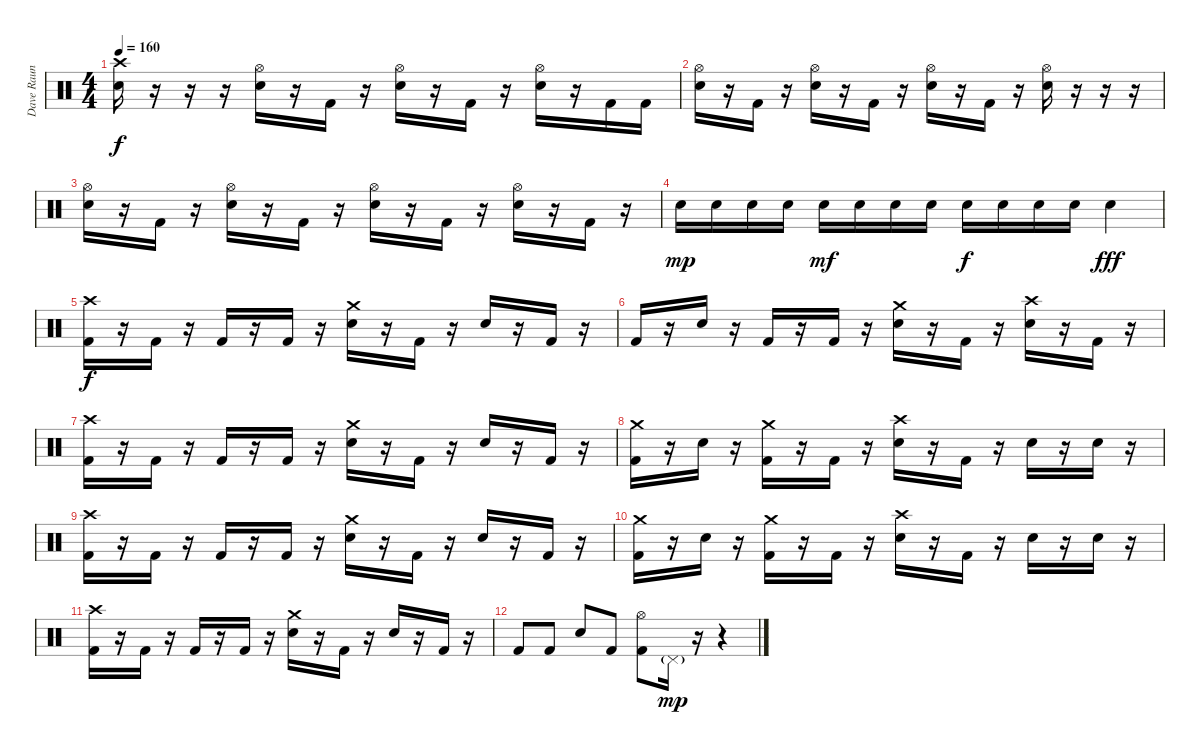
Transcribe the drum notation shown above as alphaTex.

\track ("Dave Raun" "Dave Raun") {instrument percussion}
\staff {score}
\articulation defaults
\ts (4 4)
\tempo 160
\clef neutral
\ks c
("Crash high (hit)" "Snare (hit) 2").16{dy f} r.16 r.16 r.16 ("Hi-Hat (open)" "Snare (hit) 2").16 r.16 "Kick (hit) 2".16 r.16 ("Hi-Hat (open)" "Snare (hit) 2").16 r.16 "Kick (hit) 2".16 r.16 ("Hi-Hat (open)" "Snare (hit) 2").16 r.16 "Kick (hit) 2".16 "Kick (hit) 2".16 |
("Hi-Hat (open)" "Snare (hit) 2").16 r.16 "Kick (hit) 2".16 r.16 ("Hi-Hat (open)" "Snare (hit) 2").16 r.16 "Kick (hit) 2".16 r.16 ("Hi-Hat (open)" "Snare (hit) 2").16 r.16 "Kick (hit) 2".16 r.16 ("Hi-Hat (open)" "Snare (hit) 2").16 r.16 r.16 r.16 |
("Hi-Hat (open)" "Snare (hit) 2").16 r.16 "Kick (hit) 2".16 r.16 ("Hi-Hat (open)" "Snare (hit) 2").16 r.16 "Kick (hit) 2".16 r.16 ("Hi-Hat (open)" "Snare (hit) 2").16 r.16 "Kick (hit) 2".16 r.16 ("Hi-Hat (open)" "Snare (hit) 2").16 r.16 "Kick (hit) 2".16 r.16 |
"Snare (hit) 2".16{dy mp} "Snare (hit) 2".16 "Snare (hit) 2".16 "Snare (hit) 2".16 "Snare (hit) 2".16{dy mf} "Snare (hit) 2".16 "Snare (hit) 2".16 "Snare (hit) 2".16 "Snare (hit) 2".16{dy f} "Snare (hit) 2".16 "Snare (hit) 2".16 "Snare (hit) 2".16 "Snare (hit) 2".4{dy fff} |
("Crash high (hit)" "Kick (hit) 2").16{dy f} r.16 "Kick (hit) 2".16 r.16 "Kick (hit) 2".16 r.16 "Kick (hit) 2".16 r.16 ("Crash medium (hit)" "Snare (hit) 2").16 r.16 "Kick (hit) 2".16 r.16 "Snare (hit) 2".16 r.16 "Kick (hit) 2".16 r.16 |
"Kick (hit) 2".16 r.16 "Snare (hit) 2".16 r.16 "Kick (hit) 2".16 r.16 "Kick (hit) 2".16 r.16 ("Crash medium (hit)" "Snare (hit) 2").16 r.16 "Kick (hit) 2".16 r.16 ("Crash high (hit)" "Snare (hit) 2").16 r.16 "Kick (hit) 2".16 r.16 |
("Crash high (hit)" "Kick (hit) 2").16 r.16 "Kick (hit) 2".16 r.16 "Kick (hit) 2".16 r.16 "Kick (hit) 2".16 r.16 ("Crash medium (hit)" "Snare (hit) 2").16 r.16 "Kick (hit) 2".16 r.16 "Snare (hit) 2".16 r.16 "Kick (hit) 2".16 r.16 |
("Crash medium (hit)" "Kick (hit) 2").16 r.16 "Snare (hit) 2".16 r.16 ("Crash medium (hit)" "Kick (hit) 2").16 r.16 "Kick (hit) 2".16 r.16 ("Crash high (hit)" "Snare (hit) 2").16 r.16 "Kick (hit) 2".16 r.16 "Snare (hit) 2".16 r.16 "Snare (hit) 2".16 r.16 |
("Crash high (hit)" "Kick (hit) 2").16 r.16 "Kick (hit) 2".16 r.16 "Kick (hit) 2".16 r.16 "Kick (hit) 2".16 r.16 ("Crash medium (hit)" "Snare (hit) 2").16 r.16 "Kick (hit) 2".16 r.16 "Snare (hit) 2".16 r.16 "Kick (hit) 2".16 r.16 |
("Crash medium (hit)" "Kick (hit) 2").16 r.16 "Snare (hit) 2".16 r.16 ("Crash medium (hit)" "Kick (hit) 2").16 r.16 "Kick (hit) 2".16 r.16 ("Crash high (hit)" "Snare (hit) 2").16 r.16 "Kick (hit) 2".16 r.16 "Snare (hit) 2".16 r.16 "Snare (hit) 2".16 r.16 |
("Crash high (hit)" "Kick (hit) 2").16 r.16 "Kick (hit) 2".16 r.16 "Kick (hit) 2".16 r.16 "Kick (hit) 2".16 r.16 ("Crash medium (hit)" "Snare (hit) 2").16 r.16 "Kick (hit) 2".16 r.16 "Snare (hit) 2".16 r.16 "Kick (hit) 2".16 r.16 |
"Kick (hit) 2".8 "Kick (hit) 2".8 "Snare (hit) 2".8 "Kick (hit) 2".8 ("Hi-Hat (open)" "Kick (hit) 2").8 "Pedal Hi-Hat (hit)"{g}.16{dy mp} r.16 r.4
